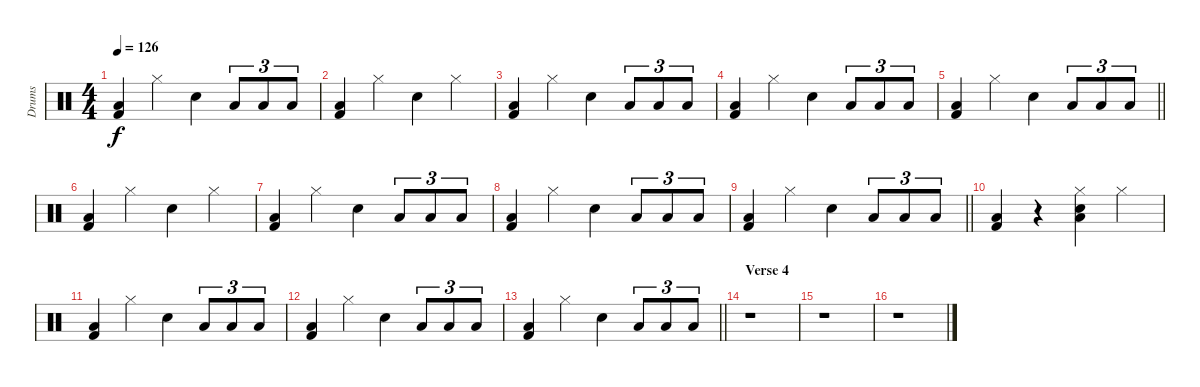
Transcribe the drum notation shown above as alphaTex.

\track ("Drums" "Drums") {instrument percussion}
\staff {score}
\articulation defaults
\ts (4 4)
\tempo 126
\clef neutral
\ks c
("Low Floor Tom (hit)" "Kick (hit) 2").4{dy f} "Hi-Hat (closed)".4 "Electric Snare (hit)".4 "Low Floor Tom (hit)".8{tu (3 2)} "Low Floor Tom (hit)".8{tu (3 2)} "Low Floor Tom (hit)".8{tu (3 2)} |
("Low Floor Tom (hit)" "Kick (hit) 2").4 "Hi-Hat (closed)".4 "Electric Snare (hit)".4 "Hi-Hat (closed)".4 |
("Low Floor Tom (hit)" "Kick (hit) 2").4 "Hi-Hat (closed)".4 "Electric Snare (hit)".4 "Low Floor Tom (hit)".8{tu (3 2)} "Low Floor Tom (hit)".8{tu (3 2)} "Low Floor Tom (hit)".8{tu (3 2)} |
("Low Floor Tom (hit)" "Kick (hit) 2").4 "Hi-Hat (closed)".4 "Electric Snare (hit)".4 "Low Floor Tom (hit)".8{tu (3 2)} "Low Floor Tom (hit)".8{tu (3 2)} "Low Floor Tom (hit)".8{tu (3 2)} |
\barLineRight lightlight
("Low Floor Tom (hit)" "Kick (hit) 2").4 "Hi-Hat (closed)".4 "Electric Snare (hit)".4 "Low Floor Tom (hit)".8{tu (3 2)} "Low Floor Tom (hit)".8{tu (3 2)} "Low Floor Tom (hit)".8{tu (3 2)} |
("Low Floor Tom (hit)" "Kick (hit) 2").4 "Hi-Hat (closed)".4 "Electric Snare (hit)".4 "Hi-Hat (closed)".4 |
("Low Floor Tom (hit)" "Kick (hit) 2").4 "Hi-Hat (closed)".4 "Electric Snare (hit)".4 "Low Floor Tom (hit)".8{tu (3 2)} "Low Floor Tom (hit)".8{tu (3 2)} "Low Floor Tom (hit)".8{tu (3 2)} |
("Low Floor Tom (hit)" "Kick (hit) 2").4 "Hi-Hat (closed)".4 "Electric Snare (hit)".4 "Low Floor Tom (hit)".8{tu (3 2)} "Low Floor Tom (hit)".8{tu (3 2)} "Low Floor Tom (hit)".8{tu (3 2)} |
\barLineRight lightlight
("Low Floor Tom (hit)" "Kick (hit) 2").4 "Hi-Hat (closed)".4 "Electric Snare (hit)".4 "Low Floor Tom (hit)".8{tu (3 2)} "Low Floor Tom (hit)".8{tu (3 2)} "Low Floor Tom (hit)".8{tu (3 2)} |
("Low Floor Tom (hit)" "Kick (hit) 2").4 r.4 ("Hi-Hat (closed)" "Electric Snare (hit)" "Low Floor Tom (hit)").4 "Hi-Hat (closed)".4 |
("Low Floor Tom (hit)" "Kick (hit) 2").4 "Hi-Hat (closed)".4 "Electric Snare (hit)".4 "Low Floor Tom (hit)".8{tu (3 2)} "Low Floor Tom (hit)".8{tu (3 2)} "Low Floor Tom (hit)".8{tu (3 2)} |
("Low Floor Tom (hit)" "Kick (hit) 2").4 "Hi-Hat (closed)".4 "Electric Snare (hit)".4 "Low Floor Tom (hit)".8{tu (3 2)} "Low Floor Tom (hit)".8{tu (3 2)} "Low Floor Tom (hit)".8{tu (3 2)} |
\barLineRight lightlight
("Low Floor Tom (hit)" "Kick (hit) 2").4 "Hi-Hat (closed)".4 "Electric Snare (hit)".4 "Low Floor Tom (hit)".8{tu (3 2)} "Low Floor Tom (hit)".8{tu (3 2)} "Low Floor Tom (hit)".8{tu (3 2)} |
\section ("" "Verse 4")
r.1 |
r.1 |
r.1
